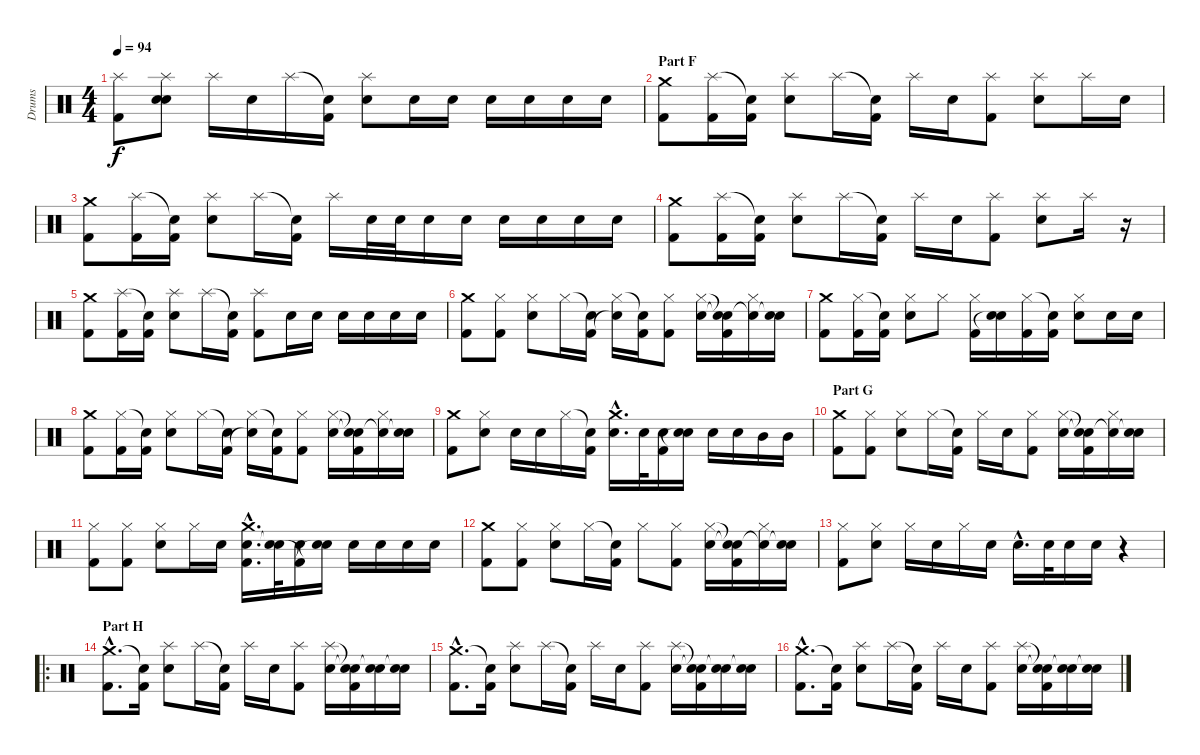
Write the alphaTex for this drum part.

\track ("Drums" "Drums") {instrument percussion}
\staff {score}
\articulation defaults
\ts (4 4)
\tempo 94
\clef neutral
\ks c
("Splash (hit)" "Kick (hit) 2").8{dy f} ("Splash (hit)" "Electric Snare (hit)" "Snare (hit)"{t}).8 "Splash (hit)".16 "Electric Snare (hit)".16 "Splash (hit)".16 ("Snare (hit)"{t} "Kick (hit) 2").16 ("Splash (hit)" "Electric Snare (hit)").8 "Electric Snare (hit)".16 "Electric Snare (hit)".16 "Electric Snare (hit)".16 "Electric Snare (hit)".16 "Electric Snare (hit)".16 "Electric Snare (hit)".16 |
\section ("" "Part F")
("Crash medium (hit)" "Kick (hit) 2").8 ("Splash (hit)" "Kick (hit) 2").16 ("Snare (hit)"{t} "Kick (hit) 2").16 ("Splash (hit)" "Electric Snare (hit)").8 "Splash (hit)".16 ("Snare (hit)"{t} "Kick (hit) 2").16 "Splash (hit)".16 "Electric Snare (hit)".16 ("Splash (hit)" "Kick (hit) 2").8 ("Splash (hit)" "Electric Snare (hit)").8 "Splash (hit)".16 "Electric Snare (hit)".16 |
("Crash medium (hit)" "Kick (hit) 2").8 ("Splash (hit)" "Kick (hit) 2").16 ("Snare (hit)"{t} "Kick (hit) 2").16 ("Splash (hit)" "Electric Snare (hit)").8 "Splash (hit)".16 ("Snare (hit)"{t} "Kick (hit) 2").16 "Splash (hit)".16 "Electric Snare (hit)".32 "Electric Snare (hit)".32 "Electric Snare (hit)".16 "Electric Snare (hit)".16 "Electric Snare (hit)".16 "Electric Snare (hit)".16 "Electric Snare (hit)".16 "Electric Snare (hit)".16 |
("Crash medium (hit)" "Kick (hit) 2").8 ("Splash (hit)" "Kick (hit) 2").16 ("Snare (hit)"{t} "Kick (hit) 2").16 ("Splash (hit)" "Electric Snare (hit)").8 "Splash (hit)".16 ("Snare (hit)"{t} "Kick (hit) 2").16 "Splash (hit)".16 "Electric Snare (hit)".16 ("Splash (hit)" "Kick (hit) 2").8 ("Splash (hit)" "Electric Snare (hit)").8 "Splash (hit)".16 r.16 |
("Crash medium (hit)" "Kick (hit) 2").8 ("Splash (hit)" "Kick (hit) 2").16 ("Snare (hit)"{t} "Kick (hit) 2").16 ("Splash (hit)" "Electric Snare (hit)").8 "Splash (hit)".16 ("Snare (hit)"{t} "Kick (hit) 2").16 ("Splash (hit)" "Kick (hit) 2").8 "Electric Snare (hit)".16 "Electric Snare (hit)".16 "Electric Snare (hit)".16 "Electric Snare (hit)".16 "Electric Snare (hit)".16 "Electric Snare (hit)".16 |
("Crash medium (hit)" "Kick (hit) 2").8 ("Hi-Hat (closed)" "Kick (hit) 2").8 ("Hi-Hat (closed)" "Electric Snare (hit)").8 "Hi-Hat (closed)".16 ("Snare (hit)"{t} "Kick (hit) 2").16 ("Hi-Hat (closed)" "Snare (hit)"{t}).16 ("Snare (hit)"{t} "Kick (hit) 2").16 ("Hi-Hat (closed)" "Kick (hit) 2").8 ("Hi-Hat (closed)" "Electric Snare (hit)").16 ("Snare (hit)"{t} "Snare (hit)"{t} "Kick (hit) 2").16 ("Hi-Hat (closed)" "Snare (hit)"{t}).16 ("Electric Snare (hit)" "Snare (hit)"{t}).16 |
("Crash medium (hit)" "Kick (hit) 2").8 ("Hi-Hat (closed)" "Kick (hit) 2").16 ("Snare (hit)"{t} "Kick (hit) 2").16 ("Hi-Hat (closed)" "Electric Snare (hit)").8 "Hi-Hat (closed)".8 ("Hi-Hat (closed)" "Kick (hit) 2").16 ("Electric Snare (hit)" "Snare (hit)"{t}).16 ("Hi-Hat (closed)" "Kick (hit) 2").16 ("Snare (hit)"{t} "Kick (hit) 2").16 ("Hi-Hat (closed)" "Electric Snare (hit)").8 "Electric Snare (hit)".16 "Electric Snare (hit)".16 |
("Crash medium (hit)" "Kick (hit) 2").8 ("Hi-Hat (closed)" "Kick (hit) 2").16 ("Snare (hit)"{t} "Kick (hit) 2").16 ("Hi-Hat (closed)" "Electric Snare (hit)").8 "Hi-Hat (closed)".16 ("Snare (hit)"{t} "Kick (hit) 2").16 ("Hi-Hat (closed)" "Snare (hit)"{t}).16 ("Snare (hit)"{t} "Kick (hit) 2").16 ("Hi-Hat (closed)" "Kick (hit) 2").8 ("Hi-Hat (closed)" "Electric Snare (hit)").16 ("Snare (hit)"{t} "Snare (hit)"{t} "Kick (hit) 2").16 ("Hi-Hat (closed)" "Snare (hit)"{t}).16 ("Electric Snare (hit)" "Snare (hit)"{t}).16 |
("Crash medium (hit)" "Kick (hit) 2").8 ("Hi-Hat (closed)" "Electric Snare (hit)").8 "Electric Snare (hit)".16 "Electric Snare (hit)".16 "Hi-Hat (closed)".16 ("Snare (hit)"{t} "Kick (hit) 2").16 ("Crash medium (hit)"{hac} "Electric Snare (hit)"{hac}).16{d} "Electric Snare (hit)".32 ("Electric Snare (hit)" "Kick (hit) 2").16 ("Electric Snare (hit)" "Snare (hit)"{t}).16 "Electric Snare (hit)".16 "Electric Snare (hit)".16 "Mid Tom (hit)".16 "Mid Tom (hit)".16 |
\section ("" "Part G")
("Crash medium (hit)" "Kick (hit) 2").8 ("Hi-Hat (closed)" "Kick (hit) 2").8 ("Hi-Hat (closed)" "Electric Snare (hit)").8 "Hi-Hat (closed)".16 ("Snare (hit)"{t} "Kick (hit) 2").16 "Hi-Hat (closed)".16 "Electric Snare (hit)".16 ("Hi-Hat (closed)" "Kick (hit) 2").8 ("Hi-Hat (closed)" "Electric Snare (hit)").16 ("Snare (hit)"{t} "Snare (hit)"{t} "Kick (hit) 2").16 ("Hi-Hat (closed)" "Snare (hit)"{t}).16 ("Electric Snare (hit)" "Snare (hit)"{t}).16 |
("Hi-Hat (closed)" "Kick (hit) 2").8 ("Hi-Hat (closed)" "Kick (hit) 2").8 ("Hi-Hat (closed)" "Electric Snare (hit)").8 "Hi-Hat (closed)".16 "Electric Snare (hit)".16 ("Crash medium (hit)"{hac} "Electric Snare (hit)"{hac} "Kick (hit) 2"{hac}).16{d} ("Electric Snare (hit)" "Snare (hit)"{t}).32 ("Electric Snare (hit)" "Kick (hit) 2"{t}).16 ("Electric Snare (hit)" "Snare (hit)"{t}).16 "Electric Snare (hit)".16 "Electric Snare (hit)".16 "Electric Snare (hit)".16 "Electric Snare (hit)".16 |
("Crash medium (hit)" "Kick (hit) 2").8 ("Hi-Hat (closed)" "Kick (hit) 2").8 ("Hi-Hat (closed)" "Electric Snare (hit)").8 "Hi-Hat (closed)".16 ("Snare (hit)"{t} "Kick (hit) 2").16 "Hi-Hat (closed)".8 ("Hi-Hat (closed)" "Kick (hit) 2").8 ("Hi-Hat (closed)" "Electric Snare (hit)").16 ("Snare (hit)"{t} "Snare (hit)"{t} "Kick (hit) 2").16 ("Hi-Hat (closed)" "Snare (hit)"{t}).16 ("Electric Snare (hit)" "Snare (hit)"{t}).16 |
("Hi-Hat (closed)" "Kick (hit) 2").8 ("Hi-Hat (closed)" "Electric Snare (hit)").8 "Hi-Hat (closed)".16 "Electric Snare (hit)".16 "Hi-Hat (closed)".16 "Electric Snare (hit)".16 "Electric Snare (hit)"{hac}.16{d} "Electric Snare (hit)".32 "Electric Snare (hit)".16 "Electric Snare (hit)".16 r.4 |
\ro
\section ("" "Part H")
("Crash medium (hit)"{hac} "Kick (hit) 2"{hac}).8{d} ("Snare (hit)"{t} "Kick (hit) 2").16 ("Splash (hit)" "Electric Snare (hit)").8 "Splash (hit)".16 ("Snare (hit)"{t} "Kick (hit) 2").16 "Splash (hit)".16 "Electric Snare (hit)".16 ("Splash (hit)" "Kick (hit) 2").8 ("Splash (hit)" "Electric Snare (hit)").16 ("Snare (hit)"{t} "Snare (hit)"{t} "Kick (hit) 2").16 ("Electric Snare (hit)" "Snare (hit)"{t}).16 ("Electric Snare (hit)" "Snare (hit)"{t}).16 |
("Crash medium (hit)"{hac} "Kick (hit) 2"{hac}).8{d} ("Snare (hit)"{t} "Kick (hit) 2").16 ("Splash (hit)" "Electric Snare (hit)").8 "Splash (hit)".16 ("Snare (hit)"{t} "Kick (hit) 2").16 "Splash (hit)".16 "Electric Snare (hit)".16 ("Splash (hit)" "Kick (hit) 2").8 ("Splash (hit)" "Electric Snare (hit)").16 ("Snare (hit)"{t} "Snare (hit)"{t} "Kick (hit) 2").16 ("Electric Snare (hit)" "Snare (hit)"{t}).16 ("Electric Snare (hit)" "Snare (hit)"{t}).16 |
("Crash medium (hit)"{hac} "Kick (hit) 2"{hac}).8{d} ("Snare (hit)"{t} "Kick (hit) 2").16 ("Splash (hit)" "Electric Snare (hit)").8 "Splash (hit)".16 ("Snare (hit)"{t} "Kick (hit) 2").16 "Splash (hit)".16 "Electric Snare (hit)".16 ("Splash (hit)" "Kick (hit) 2").8 ("Splash (hit)" "Electric Snare (hit)").16 ("Snare (hit)"{t} "Snare (hit)"{t} "Kick (hit) 2").16 ("Electric Snare (hit)" "Snare (hit)"{t}).16 ("Electric Snare (hit)" "Snare (hit)"{t}).16
